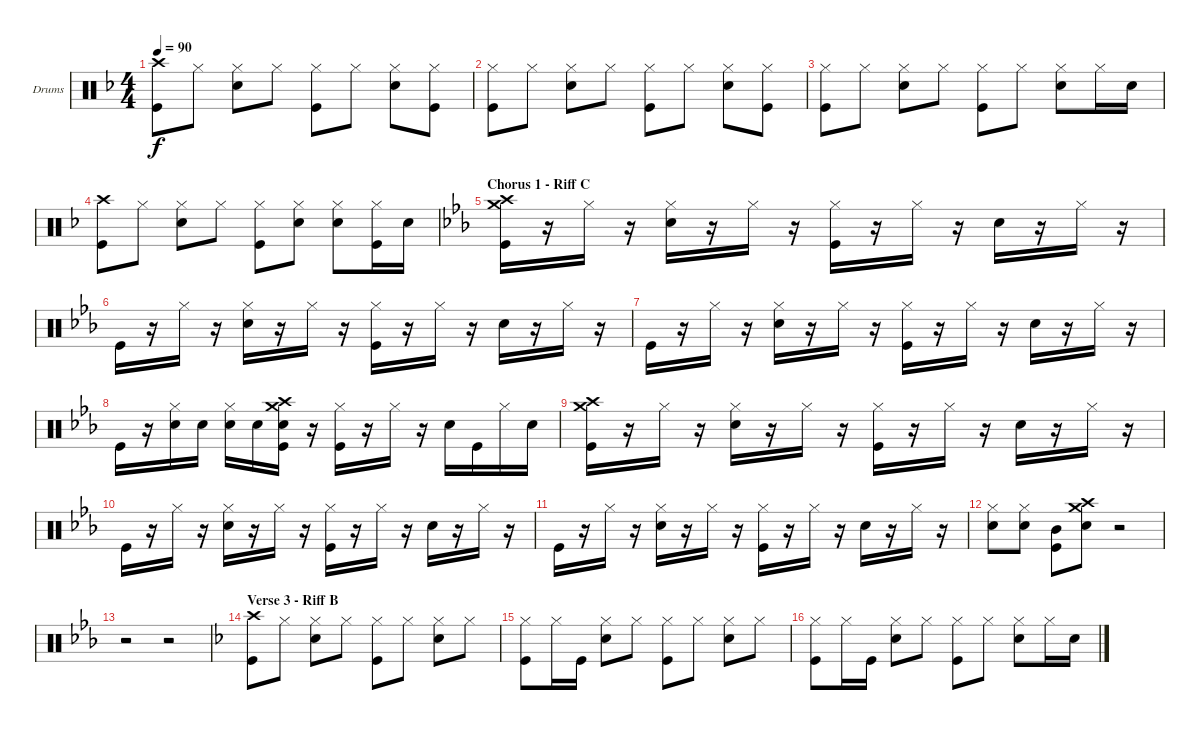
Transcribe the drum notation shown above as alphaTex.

\bracketExtendMode groupsimilarinstruments
\firstSystemTrackNameOrientation horizontal
\otherSystemsTrackNameOrientation horizontal
\track ("Drumkit" "Drums") {instrument percussion}
\staff {score}
\articulation defaults
\ts (4 4)
\tempo 90
\clef neutral
\ks dminor
("Crash high (hit)" "Kick (hit)").8{dy f} "Hi-Hat (closed)".8 ("Hi-Hat (closed)" "Snare (hit) 2").8 "Hi-Hat (closed)".8 ("Hi-Hat (closed)" "Kick (hit)").8 "Hi-Hat (closed)".8 ("Hi-Hat (closed)" "Snare (hit) 2").8 ("Hi-Hat (closed)" "Kick (hit)").8 |
("Hi-Hat (closed)" "Kick (hit)").8 "Hi-Hat (closed)".8 ("Hi-Hat (closed)" "Snare (hit) 2").8 "Hi-Hat (closed)".8 ("Hi-Hat (closed)" "Kick (hit)").8 "Hi-Hat (closed)".8 ("Hi-Hat (closed)" "Snare (hit) 2").8 ("Hi-Hat (closed)" "Kick (hit)").8 |
("Hi-Hat (closed)" "Kick (hit)").8 "Hi-Hat (closed)".8 ("Hi-Hat (closed)" "Snare (hit) 2").8 "Hi-Hat (closed)".8 ("Hi-Hat (closed)" "Kick (hit)").8 "Hi-Hat (closed)".8 ("Hi-Hat (closed)" "Snare (hit) 2").8 "Hi-Hat (closed)".16 "Snare (hit) 2".16 |
("Crash high (hit)" "Kick (hit)").8 "Hi-Hat (closed)".8 ("Hi-Hat (closed)" "Snare (hit) 2").8 "Hi-Hat (closed)".8 ("Hi-Hat (closed)" "Kick (hit)").8 ("Hi-Hat (closed)" "Snare (hit) 2").8 ("Hi-Hat (closed)" "Snare (hit) 2").8 ("Hi-Hat (closed)" "Kick (hit)").16 "Snare (hit) 2".16 |
\section ("" "Chorus 1 - Riff C")
\ks cminor
("Crash high (hit)" "Crash medium (hit)" "Kick (hit)").16 r.16 "Hi-Hat (closed)".16 r.16 ("Hi-Hat (closed)" "Snare (hit) 2").16 r.16 "Hi-Hat (closed)".16 r.16 ("Hi-Hat (closed)" "Kick (hit)").16 r.16 "Hi-Hat (closed)".16 r.16 "Snare (hit) 2".16 r.16 "Hi-Hat (closed)".16 r.16 |
"Kick (hit)".16 r.16 "Hi-Hat (closed)".16 r.16 ("Hi-Hat (closed)" "Snare (hit) 2").16 r.16 "Hi-Hat (closed)".16 r.16 ("Hi-Hat (closed)" "Kick (hit)").16 r.16 "Hi-Hat (closed)".16 r.16 "Snare (hit) 2".16 r.16 "Hi-Hat (closed)".16 r.16 |
"Kick (hit)".16 r.16 "Hi-Hat (closed)".16 r.16 ("Hi-Hat (closed)" "Snare (hit) 2").16 r.16 "Hi-Hat (closed)".16 r.16 ("Hi-Hat (closed)" "Kick (hit)").16 r.16 "Hi-Hat (closed)".16 r.16 "Snare (hit) 2".16 r.16 "Hi-Hat (closed)".16 r.16 |
"Kick (hit)".16 r.16 ("Hi-Hat (closed)" "Snare (hit) 2").16 "Snare (hit) 2".16 ("Hi-Hat (closed)" "Snare (hit) 2").16 "Snare (hit) 2".16 ("Crash medium (hit)" "Crash high (hit)" "Snare (hit) 2" "Kick (hit)").16 r.16 ("Hi-Hat (closed)" "Kick (hit)").16 r.16 "Hi-Hat (closed)".16 r.16 "Snare (hit) 2".16 "Kick (hit)".16 "Hi-Hat (closed)".16 "Snare (hit) 2".16 |
("Crash high (hit)" "Crash medium (hit)" "Kick (hit)").16 r.16 "Hi-Hat (closed)".16 r.16 ("Hi-Hat (closed)" "Snare (hit) 2").16 r.16 "Hi-Hat (closed)".16 r.16 ("Hi-Hat (closed)" "Kick (hit)").16 r.16 "Hi-Hat (closed)".16 r.16 "Snare (hit) 2".16 r.16 "Hi-Hat (closed)".16 r.16 |
"Kick (hit)".16 r.16 "Hi-Hat (closed)".16 r.16 ("Hi-Hat (closed)" "Snare (hit) 2").16 r.16 "Hi-Hat (closed)".16 r.16 ("Hi-Hat (closed)" "Kick (hit)").16 r.16 "Hi-Hat (closed)".16 r.16 "Snare (hit) 2".16 r.16 "Hi-Hat (closed)".16 r.16 |
"Kick (hit)".16 r.16 "Hi-Hat (closed)".16 r.16 ("Hi-Hat (closed)" "Snare (hit) 2").16 r.16 "Hi-Hat (closed)".16 r.16 ("Hi-Hat (closed)" "Kick (hit)").16 r.16 "Hi-Hat (closed)".16 r.16 "Snare (hit) 2".16 r.16 "Hi-Hat (closed)".16 r.16 |
("Hi-Hat (closed)" "Snare (hit) 2").8 ("Hi-Hat (closed)" "Snare (hit) 2").8 ("Mid Tom (hit)" "Kick (hit)").8 ("Crash medium (hit)" "Crash high (hit)" "Snare (hit) 2").8 r.2 |
r.2 r.2 |
\section ("" "Verse 3 - Riff B")
\ks dminor
("Crash high (hit)" "Kick (hit)").8 "Hi-Hat (closed)".8 ("Hi-Hat (closed)" "Snare (hit) 2").8 "Hi-Hat (closed)".8 ("Hi-Hat (closed)" "Kick (hit)").8 "Hi-Hat (closed)".8 ("Hi-Hat (closed)" "Snare (hit) 2").8 "Hi-Hat (closed)".8 |
("Hi-Hat (closed)" "Kick (hit)").8 "Hi-Hat (closed)".16 "Kick (hit)".16 ("Hi-Hat (closed)" "Snare (hit) 2").8 "Hi-Hat (closed)".8 ("Hi-Hat (closed)" "Kick (hit)").8 "Hi-Hat (closed)".8 ("Hi-Hat (closed)" "Snare (hit) 2").8 "Hi-Hat (closed)".8 |
("Hi-Hat (closed)" "Kick (hit)").8 "Hi-Hat (closed)".16 "Kick (hit)".16 ("Hi-Hat (closed)" "Snare (hit) 2").8 "Hi-Hat (closed)".8 ("Hi-Hat (closed)" "Kick (hit)").8 "Hi-Hat (closed)".8 ("Hi-Hat (closed)" "Snare (hit) 2").8 "Hi-Hat (closed)".16 "Snare (hit) 2".16
